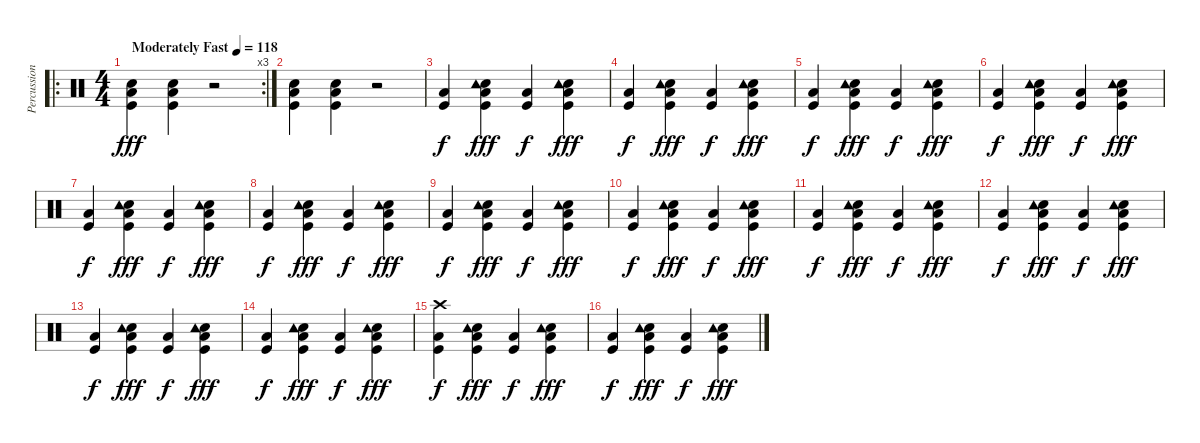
\track ("Percussion" "Percussion") {instrument percussion}
\staff {score}
\articulation defaults
\ro
\rc 3
\ts (4 4)
\tempo (118 "Moderately Fast")
\clef neutral
\ks c
("Low Floor Tom (hit)" "Kick (hit)" "Snare (hit) 2").4{dy fff} ("Low Floor Tom (hit)" "Kick (hit)" "Snare (hit) 2").4 r.2 |
("Low Floor Tom (hit)" "Kick (hit)" "Snare (hit) 2").4 ("Low Floor Tom (hit)" "Kick (hit)" "Snare (hit) 2").4 r.2 |
("Kick (hit)" "Low Floor Tom (hit)").4{dy f} ("Snare (hit) 2" "Tambourine (hit)" "Kick (hit)" "Low Floor Tom (hit)").4{dy fff} ("Kick (hit)" "Low Floor Tom (hit)").4{dy f} ("Snare (hit) 2" "Tambourine (hit)" "Kick (hit)" "Low Floor Tom (hit)").4{dy fff} |
("Kick (hit)" "Low Floor Tom (hit)").4{dy f} ("Snare (hit) 2" "Tambourine (hit)" "Kick (hit)" "Low Floor Tom (hit)").4{dy fff} ("Kick (hit)" "Low Floor Tom (hit)").4{dy f} ("Snare (hit) 2" "Tambourine (hit)" "Kick (hit)" "Low Floor Tom (hit)").4{dy fff} |
("Kick (hit)" "Low Floor Tom (hit)").4{dy f} ("Snare (hit) 2" "Tambourine (hit)" "Kick (hit)" "Low Floor Tom (hit)").4{dy fff} ("Kick (hit)" "Low Floor Tom (hit)").4{dy f} ("Snare (hit) 2" "Tambourine (hit)" "Kick (hit)" "Low Floor Tom (hit)").4{dy fff} |
("Kick (hit)" "Low Floor Tom (hit)").4{dy f} ("Snare (hit) 2" "Tambourine (hit)" "Kick (hit)" "Low Floor Tom (hit)").4{dy fff} ("Kick (hit)" "Low Floor Tom (hit)").4{dy f} ("Snare (hit) 2" "Tambourine (hit)" "Kick (hit)" "Low Floor Tom (hit)").4{dy fff} |
("Kick (hit)" "Low Floor Tom (hit)").4{dy f} ("Snare (hit) 2" "Tambourine (hit)" "Kick (hit)" "Low Floor Tom (hit)").4{dy fff} ("Kick (hit)" "Low Floor Tom (hit)").4{dy f} ("Snare (hit) 2" "Tambourine (hit)" "Kick (hit)" "Low Floor Tom (hit)").4{dy fff} |
("Kick (hit)" "Low Floor Tom (hit)").4{dy f} ("Snare (hit) 2" "Tambourine (hit)" "Kick (hit)" "Low Floor Tom (hit)").4{dy fff} ("Kick (hit)" "Low Floor Tom (hit)").4{dy f} ("Snare (hit) 2" "Tambourine (hit)" "Kick (hit)" "Low Floor Tom (hit)").4{dy fff} |
("Kick (hit)" "Low Floor Tom (hit)").4{dy f} ("Snare (hit) 2" "Tambourine (hit)" "Kick (hit)" "Low Floor Tom (hit)").4{dy fff} ("Kick (hit)" "Low Floor Tom (hit)").4{dy f} ("Snare (hit) 2" "Tambourine (hit)" "Kick (hit)" "Low Floor Tom (hit)").4{dy fff} |
("Kick (hit)" "Low Floor Tom (hit)").4{dy f} ("Snare (hit) 2" "Tambourine (hit)" "Kick (hit)" "Low Floor Tom (hit)").4{dy fff} ("Kick (hit)" "Low Floor Tom (hit)").4{dy f} ("Snare (hit) 2" "Tambourine (hit)" "Kick (hit)" "Low Floor Tom (hit)").4{dy fff} |
("Kick (hit)" "Low Floor Tom (hit)").4{dy f} ("Snare (hit) 2" "Tambourine (hit)" "Kick (hit)" "Low Floor Tom (hit)").4{dy fff} ("Kick (hit)" "Low Floor Tom (hit)").4{dy f} ("Snare (hit) 2" "Tambourine (hit)" "Kick (hit)" "Low Floor Tom (hit)").4{dy fff} |
("Kick (hit)" "Low Floor Tom (hit)").4{dy f} ("Snare (hit) 2" "Tambourine (hit)" "Kick (hit)" "Low Floor Tom (hit)").4{dy fff} ("Kick (hit)" "Low Floor Tom (hit)").4{dy f} ("Snare (hit) 2" "Tambourine (hit)" "Kick (hit)" "Low Floor Tom (hit)").4{dy fff} |
("Kick (hit)" "Low Floor Tom (hit)").4{dy f} ("Snare (hit) 2" "Tambourine (hit)" "Kick (hit)" "Low Floor Tom (hit)").4{dy fff} ("Kick (hit)" "Low Floor Tom (hit)").4{dy f} ("Snare (hit) 2" "Tambourine (hit)" "Kick (hit)" "Low Floor Tom (hit)").4{dy fff} |
("Kick (hit)" "Low Floor Tom (hit)").4{dy f} ("Snare (hit) 2" "Tambourine (hit)" "Kick (hit)" "Low Floor Tom (hit)").4{dy fff} ("Kick (hit)" "Low Floor Tom (hit)").4{dy f} ("Snare (hit) 2" "Tambourine (hit)" "Kick (hit)" "Low Floor Tom (hit)").4{dy fff} |
("Crash high (hit)" "Kick (hit)" "Low Floor Tom (hit)").4{dy f} ("Snare (hit) 2" "Tambourine (hit)" "Kick (hit)" "Low Floor Tom (hit)").4{dy fff} ("Kick (hit)" "Low Floor Tom (hit)").4{dy f} ("Snare (hit) 2" "Tambourine (hit)" "Kick (hit)" "Low Floor Tom (hit)").4{dy fff} |
("Kick (hit)" "Low Floor Tom (hit)").4{dy f} ("Snare (hit) 2" "Tambourine (hit)" "Kick (hit)" "Low Floor Tom (hit)").4{dy fff} ("Kick (hit)" "Low Floor Tom (hit)").4{dy f} ("Snare (hit) 2" "Tambourine (hit)" "Kick (hit)" "Low Floor Tom (hit)").4{dy fff}
